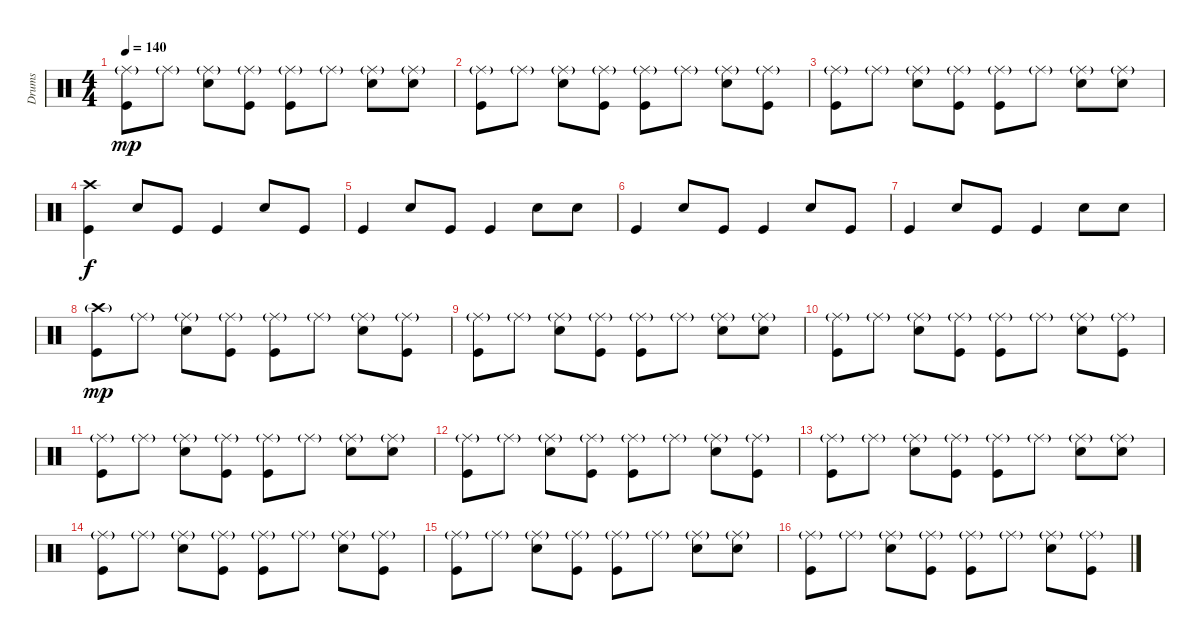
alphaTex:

\track ("Drums" "Drums") {instrument percussion}
\staff {score}
\articulation defaults
\ts (4 4)
\tempo 140
\clef neutral
\ks c
("Ride (middle)"{g} "Kick (hit)").8{dy mp} "Ride (middle)"{g}.8 ("Ride (middle)"{g} "Electric Snare (hit)").8 ("Ride (middle)"{g} "Kick (hit)").8 ("Ride (middle)"{g} "Kick (hit)").8 "Ride (middle)"{g}.8 ("Ride (middle)"{g} "Electric Snare (hit)").8 ("Ride (middle)"{g} "Electric Snare (hit)").8 |
("Ride (middle)"{g} "Kick (hit)").8 "Ride (middle)"{g}.8 ("Ride (middle)"{g} "Electric Snare (hit)").8 ("Ride (middle)"{g} "Kick (hit)").8 ("Ride (middle)"{g} "Kick (hit)").8 "Ride (middle)"{g}.8 ("Ride (middle)"{g} "Electric Snare (hit)").8 ("Ride (middle)"{g} "Kick (hit)").8 |
("Ride (middle)"{g} "Kick (hit)").8 "Ride (middle)"{g}.8 ("Ride (middle)"{g} "Electric Snare (hit)").8 ("Ride (middle)"{g} "Kick (hit)").8 ("Ride (middle)"{g} "Kick (hit)").8 "Ride (middle)"{g}.8 ("Ride (middle)"{g} "Electric Snare (hit)").8 ("Ride (middle)"{g} "Electric Snare (hit)").8 |
("Crash high (hit)" "Kick (hit)").4{dy f} "Electric Snare (hit)".8 "Kick (hit)".8 "Kick (hit)".4 "Electric Snare (hit)".8 "Kick (hit)".8 |
"Kick (hit)".4 "Electric Snare (hit)".8 "Kick (hit)".8 "Kick (hit)".4 "Electric Snare (hit)".8 "Electric Snare (hit)".8 |
"Kick (hit)".4 "Electric Snare (hit)".8 "Kick (hit)".8 "Kick (hit)".4 "Electric Snare (hit)".8 "Kick (hit)".8 |
"Kick (hit)".4 "Electric Snare (hit)".8 "Kick (hit)".8 "Kick (hit)".4 "Electric Snare (hit)".8 "Electric Snare (hit)".8 |
("Crash high (hit)"{g} "Kick (hit)").8{dy mp} "Ride (middle)"{g}.8 ("Ride (middle)"{g} "Electric Snare (hit)").8 ("Ride (middle)"{g} "Kick (hit)").8 ("Ride (middle)"{g} "Kick (hit)").8 "Ride (middle)"{g}.8 ("Ride (middle)"{g} "Electric Snare (hit)").8 ("Ride (middle)"{g} "Kick (hit)").8 |
("Ride (middle)"{g} "Kick (hit)").8 "Ride (middle)"{g}.8 ("Ride (middle)"{g} "Electric Snare (hit)").8 ("Ride (middle)"{g} "Kick (hit)").8 ("Ride (middle)"{g} "Kick (hit)").8 "Ride (middle)"{g}.8 ("Ride (middle)"{g} "Electric Snare (hit)").8 ("Ride (middle)"{g} "Electric Snare (hit)").8 |
("Ride (middle)"{g} "Kick (hit)").8 "Ride (middle)"{g}.8 ("Ride (middle)"{g} "Electric Snare (hit)").8 ("Ride (middle)"{g} "Kick (hit)").8 ("Ride (middle)"{g} "Kick (hit)").8 "Ride (middle)"{g}.8 ("Ride (middle)"{g} "Electric Snare (hit)").8 ("Ride (middle)"{g} "Kick (hit)").8 |
("Ride (middle)"{g} "Kick (hit)").8 "Ride (middle)"{g}.8 ("Ride (middle)"{g} "Electric Snare (hit)").8 ("Ride (middle)"{g} "Kick (hit)").8 ("Ride (middle)"{g} "Kick (hit)").8 "Ride (middle)"{g}.8 ("Ride (middle)"{g} "Electric Snare (hit)").8 ("Ride (middle)"{g} "Electric Snare (hit)").8 |
("Ride (middle)"{g} "Kick (hit)").8 "Ride (middle)"{g}.8 ("Ride (middle)"{g} "Electric Snare (hit)").8 ("Ride (middle)"{g} "Kick (hit)").8 ("Ride (middle)"{g} "Kick (hit)").8 "Ride (middle)"{g}.8 ("Ride (middle)"{g} "Electric Snare (hit)").8 ("Ride (middle)"{g} "Kick (hit)").8 |
("Ride (middle)"{g} "Kick (hit)").8 "Ride (middle)"{g}.8 ("Ride (middle)"{g} "Electric Snare (hit)").8 ("Ride (middle)"{g} "Kick (hit)").8 ("Ride (middle)"{g} "Kick (hit)").8 "Ride (middle)"{g}.8 ("Ride (middle)"{g} "Electric Snare (hit)").8 ("Ride (middle)"{g} "Electric Snare (hit)").8 |
("Ride (middle)"{g} "Kick (hit)").8 "Ride (middle)"{g}.8 ("Ride (middle)"{g} "Electric Snare (hit)").8 ("Ride (middle)"{g} "Kick (hit)").8 ("Ride (middle)"{g} "Kick (hit)").8 "Ride (middle)"{g}.8 ("Ride (middle)"{g} "Electric Snare (hit)").8 ("Ride (middle)"{g} "Kick (hit)").8 |
("Ride (middle)"{g} "Kick (hit)").8 "Ride (middle)"{g}.8 ("Ride (middle)"{g} "Electric Snare (hit)").8 ("Ride (middle)"{g} "Kick (hit)").8 ("Ride (middle)"{g} "Kick (hit)").8 "Ride (middle)"{g}.8 ("Ride (middle)"{g} "Electric Snare (hit)").8 ("Ride (middle)"{g} "Electric Snare (hit)").8 |
("Ride (middle)"{g} "Kick (hit)").8 "Ride (middle)"{g}.8 ("Ride (middle)"{g} "Electric Snare (hit)").8 ("Ride (middle)"{g} "Kick (hit)").8 ("Ride (middle)"{g} "Kick (hit)").8 "Ride (middle)"{g}.8 ("Ride (middle)"{g} "Electric Snare (hit)").8 ("Ride (middle)"{g} "Kick (hit)").8
